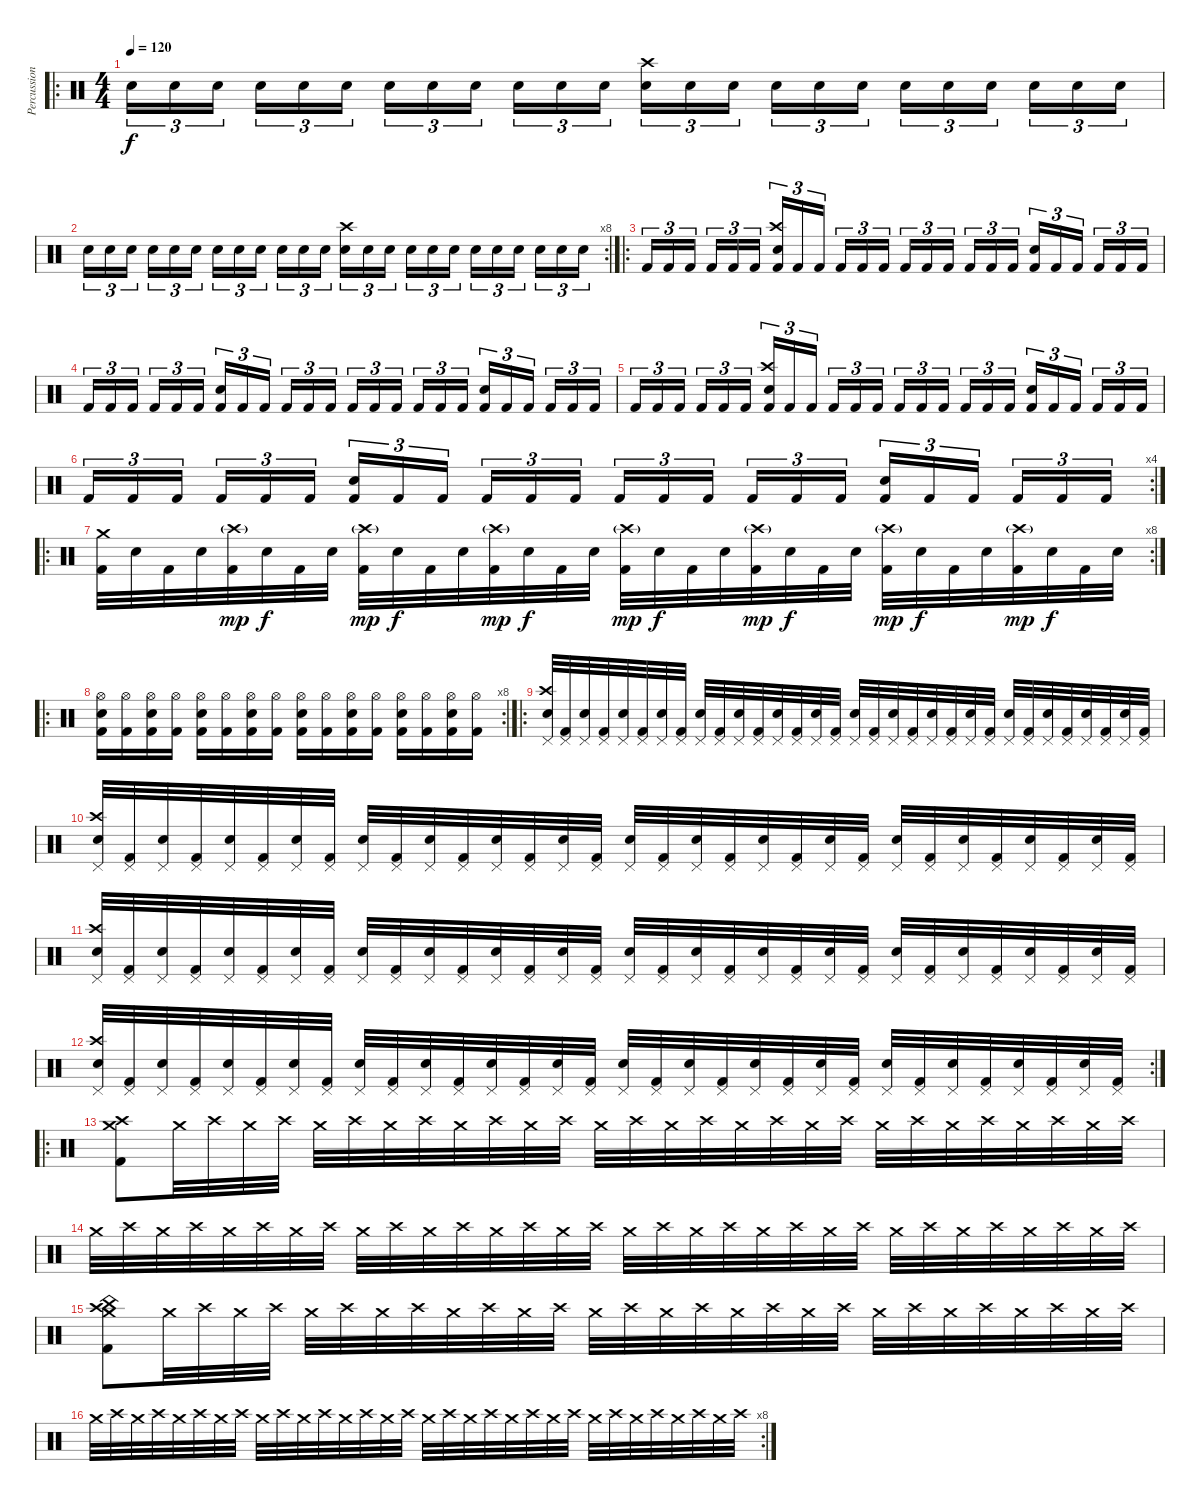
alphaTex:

\track ("Percussions" "Percussion") {instrument percussion}
\staff {score}
\articulation defaults
\ro
\ts (4 4)
\tempo 120
\clef neutral
\ks c "Electric Snare (hit)".16{tu (3 2) dy f} "Snare (hit) 2".16{tu (3 2)} "Electric Snare (hit)".16{tu (3 2) beam splitsecondary} "Snare (hit) 2".16{tu (3 2)} "Electric Snare (hit)".16{tu (3 2)} "Snare (hit) 2".16{tu (3 2)} "Electric Snare (hit)".16{tu (3 2)} "Snare (hit) 2".16{tu (3 2)} "Electric Snare (hit)".16{tu (3 2) beam splitsecondary} "Snare (hit) 2".16{tu (3 2)} "Electric Snare (hit)".16{tu (3 2)} "Snare (hit) 2".16{tu (3 2)}
("Crash high (hit)" "Electric Snare (hit)").16{tu (3 2)} "Snare (hit) 2".16{tu (3 2)} "Electric Snare (hit)".16{tu (3 2) beam splitsecondary} "Snare (hit) 2".16{tu (3 2)} "Electric Snare (hit)".16{tu (3 2)} "Snare (hit) 2".16{tu (3 2)} "Electric Snare (hit)".16{tu (3 2)} "Snare (hit) 2".16{tu (3 2)} "Electric Snare (hit)".16{tu (3 2) beam splitsecondary} "Snare (hit) 2".16{tu (3 2)} "Electric Snare (hit)".16{tu (3 2)} "Snare (hit) 2".16{tu (3 2)} |
\rc 8 "Electric Snare (hit)".16{tu (3 2)} "Snare (hit) 2".16{tu (3 2)} "Electric Snare (hit)".16{tu (3 2) beam splitsecondary} "Snare (hit) 2".16{tu (3 2)} "Electric Snare (hit)".16{tu (3 2)} "Snare (hit) 2".16{tu (3 2)} "Electric Snare (hit)".16{tu (3 2)} "Snare (hit) 2".16{tu (3 2)} "Electric Snare (hit)".16{tu (3 2) beam splitsecondary} "Snare (hit) 2".16{tu (3 2)} "Electric Snare (hit)".16{tu (3 2)} "Snare (hit) 2".16{tu (3 2)}
("Crash high (hit)" "Electric Snare (hit)").16{tu (3 2)} "Snare (hit) 2".16{tu (3 2)} "Electric Snare (hit)".16{tu (3 2) beam splitsecondary} "Snare (hit) 2".16{tu (3 2)} "Electric Snare (hit)".16{tu (3 2)} "Snare (hit) 2".16{tu (3 2)} "Electric Snare (hit)".16{tu (3 2)} "Snare (hit) 2".16{tu (3 2)} "Electric Snare (hit)".16{tu (3 2) beam splitsecondary} "Snare (hit) 2".16{tu (3 2)} "Electric Snare (hit)".16{tu (3 2)} "Snare (hit) 2".16{tu (3 2)} |
\ro "Kick (hit) 2".16{tu (3 2)} "Kick (hit) 2".16{tu (3 2)} "Kick (hit) 2".16{tu (3 2) beam splitsecondary} "Kick (hit) 2".16{tu (3 2)} "Kick (hit) 2".16{tu (3 2)} "Kick (hit) 2".16{tu (3 2)}
("Snare (hit) 2" "Crash high (hit)" "Kick (hit) 2").16{tu (3 2)} "Kick (hit) 2".16{tu (3 2)} "Kick (hit) 2".16{tu (3 2) beam splitsecondary} "Kick (hit) 2".16{tu (3 2)} "Kick (hit) 2".16{tu (3 2)} "Kick (hit) 2".16{tu (3 2)} "Kick (hit) 2".16{tu (3 2)} "Kick (hit) 2".16{tu (3 2)} "Kick (hit) 2".16{tu (3 2) beam splitsecondary} "Kick (hit) 2".16{tu (3 2)} "Kick (hit) 2".16{tu (3 2)} "Kick (hit) 2".16{tu (3 2)} ("Snare (hit) 2" "Kick (hit) 2").16{tu (3 2)} "Kick (hit) 2".16{tu (3 2)} "Kick (hit) 2".16{tu (3 2) beam splitsecondary} "Kick (hit) 2".16{tu (3 2)} "Kick (hit) 2".16{tu (3 2)} "Kick (hit) 2".16{tu (3 2)} |
"Kick (hit) 2".16{tu (3 2)} "Kick (hit) 2".16{tu (3 2)} "Kick (hit) 2".16{tu (3 2) beam splitsecondary} "Kick (hit) 2".16{tu (3 2)} "Kick (hit) 2".16{tu (3 2)} "Kick (hit) 2".16{tu (3 2)} ("Snare (hit) 2" "Kick (hit) 2").16{tu (3 2)} "Kick (hit) 2".16{tu (3 2)} "Kick (hit) 2".16{tu (3 2) beam splitsecondary} "Kick (hit) 2".16{tu (3 2)} "Kick (hit) 2".16{tu (3 2)} "Kick (hit) 2".16{tu (3 2)} "Kick (hit) 2".16{tu (3 2)} "Kick (hit) 2".16{tu (3 2)} "Kick (hit) 2".16{tu (3 2) beam splitsecondary} "Kick (hit) 2".16{tu (3 2)} "Kick (hit) 2".16{tu (3 2)} "Kick (hit) 2".16{tu (3 2)} ("Snare (hit) 2" "Kick (hit) 2").16{tu (3 2)} "Kick (hit) 2".16{tu (3 2)} "Kick (hit) 2".16{tu (3 2) beam splitsecondary} "Kick (hit) 2".16{tu (3 2)} "Kick (hit) 2".16{tu (3 2)} "Kick (hit) 2".16{tu (3 2)} |
"Kick (hit) 2".16{tu (3 2)} "Kick (hit) 2".16{tu (3 2)} "Kick (hit) 2".16{tu (3 2) beam splitsecondary} "Kick (hit) 2".16{tu (3 2)} "Kick (hit) 2".16{tu (3 2)} "Kick (hit) 2".16{tu (3 2)} ("Snare (hit) 2" "Crash high (hit)" "Kick (hit) 2").16{tu (3 2)} "Kick (hit) 2".16{tu (3 2)} "Kick (hit) 2".16{tu (3 2) beam splitsecondary} "Kick (hit) 2".16{tu (3 2)} "Kick (hit) 2".16{tu (3 2)} "Kick (hit) 2".16{tu (3 2)} "Kick (hit) 2".16{tu (3 2)} "Kick (hit) 2".16{tu (3 2)} "Kick (hit) 2".16{tu (3 2) beam splitsecondary} "Kick (hit) 2".16{tu (3 2)} "Kick (hit) 2".16{tu (3 2)} "Kick (hit) 2".16{tu (3 2)} ("Snare (hit) 2" "Kick (hit) 2").16{tu (3 2)} "Kick (hit) 2".16{tu (3 2)} "Kick (hit) 2".16{tu (3 2) beam splitsecondary} "Kick (hit) 2".16{tu (3 2)} "Kick (hit) 2".16{tu (3 2)} "Kick (hit) 2".16{tu (3 2)} |
\rc 4 "Kick (hit) 2".16{tu (3 2)} "Kick (hit) 2".16{tu (3 2)} "Kick (hit) 2".16{tu (3 2) beam splitsecondary} "Kick (hit) 2".16{tu (3 2)} "Kick (hit) 2".16{tu (3 2)} "Kick (hit) 2".16{tu (3 2)}
("Snare (hit) 2" "Kick (hit) 2").16{tu (3 2)} "Kick (hit) 2".16{tu (3 2)} "Kick (hit) 2".16{tu (3 2) beam splitsecondary} "Kick (hit) 2".16{tu (3 2)} "Kick (hit) 2".16{tu (3 2)} "Kick (hit) 2".16{tu (3 2)} "Kick (hit) 2".16{tu (3 2)} "Kick (hit) 2".16{tu (3 2)} "Kick (hit) 2".16{tu (3 2) beam splitsecondary} "Kick (hit) 2".16{tu (3 2)} "Kick (hit) 2".16{tu (3 2)} "Kick (hit) 2".16{tu (3 2)} ("Snare (hit) 2" "Kick (hit) 2").16{tu (3 2)} "Kick (hit) 2".16{tu (3 2)} "Kick (hit) 2".16{tu (3 2) beam splitsecondary} "Kick (hit) 2".16{tu (3 2)} "Kick (hit) 2".16{tu (3 2)} "Kick (hit) 2".16{tu (3 2)} |
\ro
\rc 8
("Crash medium (hit)" "Kick (hit) 2").32 "Electric Snare (hit)".32 "Kick (hit) 2".32 "Electric Snare (hit)".32 ("Crash high (hit)"{g} "Kick (hit) 2").32{dy mp} "Electric Snare (hit)".32{dy f} "Kick (hit) 2".32 "Electric Snare (hit)".32 ("Crash high (hit)"{g} "Kick (hit) 2").32{dy mp} "Electric Snare (hit)".32{dy f} "Kick (hit) 2".32 "Electric Snare (hit)".32 ("Crash high (hit)"{g} "Kick (hit) 2").32{dy mp} "Electric Snare (hit)".32{dy f} "Kick (hit) 2".32 "Electric Snare (hit)".32 ("Crash high (hit)"{g} "Kick (hit) 2").32{dy mp} "Electric Snare (hit)".32{dy f} "Kick (hit) 2".32 "Electric Snare (hit)".32 ("Crash high (hit)"{g} "Kick (hit) 2").32{dy mp} "Electric Snare (hit)".32{dy f} "Kick (hit) 2".32 "Electric Snare (hit)".32 ("Crash high (hit)"{g} "Kick (hit) 2").32{dy mp} "Electric Snare (hit)".32{dy f} "Kick (hit) 2".32 "Electric Snare (hit)".32 ("Crash high (hit)"{g} "Kick (hit) 2").32{dy mp} "Electric Snare (hit)".32{dy f} "Kick (hit) 2".32 "Electric Snare (hit)".32 |
\ro
\rc 8
("Hi-Hat (open)" "Snare (hit) 2" "Kick (hit) 2").16 ("Hi-Hat (open)" "Kick (hit) 2").16 ("Hi-Hat (open)" "Snare (hit) 2" "Kick (hit) 2").16 ("Hi-Hat (open)" "Kick (hit) 2").16 ("Hi-Hat (open)" "Snare (hit) 2" "Kick (hit) 2").16 ("Hi-Hat (open)" "Kick (hit) 2").16 ("Hi-Hat (open)" "Snare (hit) 2" "Kick (hit) 2").16 ("Hi-Hat (open)" "Kick (hit) 2").16 ("Hi-Hat (open)" "Snare (hit) 2" "Kick (hit) 2").16 ("Hi-Hat (open)" "Kick (hit) 2").16 ("Hi-Hat (open)" "Snare (hit) 2" "Kick (hit) 2").16 ("Hi-Hat (open)" "Kick (hit) 2").16 ("Hi-Hat (open)" "Snare (hit) 2" "Kick (hit) 2").16 ("Hi-Hat (open)" "Kick (hit) 2").16 ("Hi-Hat (open)" "Snare (hit) 2" "Kick (hit) 2").16 ("Hi-Hat (open)" "Kick (hit) 2").16 |
\ro
("Pedal Hi-Hat (hit)" "Crash high (hit)" "Electric Snare (hit)").32 ("Pedal Hi-Hat (hit)" "Kick (hit) 2").32 ("Pedal Hi-Hat (hit)" "Electric Snare (hit)").32 ("Pedal Hi-Hat (hit)" "Kick (hit) 2").32 ("Pedal Hi-Hat (hit)" "Electric Snare (hit)").32 ("Pedal Hi-Hat (hit)" "Kick (hit) 2").32 ("Pedal Hi-Hat (hit)" "Electric Snare (hit)").32 ("Pedal Hi-Hat (hit)" "Kick (hit) 2").32 ("Pedal Hi-Hat (hit)" "Electric Snare (hit)").32 ("Pedal Hi-Hat (hit)" "Kick (hit) 2").32 ("Pedal Hi-Hat (hit)" "Electric Snare (hit)").32 ("Pedal Hi-Hat (hit)" "Kick (hit) 2").32 ("Pedal Hi-Hat (hit)" "Electric Snare (hit)").32 ("Pedal Hi-Hat (hit)" "Kick (hit) 2").32 ("Pedal Hi-Hat (hit)" "Electric Snare (hit)").32 ("Pedal Hi-Hat (hit)" "Kick (hit) 2").32 ("Pedal Hi-Hat (hit)" "Electric Snare (hit)").32 ("Pedal Hi-Hat (hit)" "Kick (hit) 2").32 ("Pedal Hi-Hat (hit)" "Electric Snare (hit)").32 ("Pedal Hi-Hat (hit)" "Kick (hit) 2").32 ("Pedal Hi-Hat (hit)" "Electric Snare (hit)").32 ("Pedal Hi-Hat (hit)" "Kick (hit) 2").32 ("Pedal Hi-Hat (hit)" "Electric Snare (hit)").32 ("Pedal Hi-Hat (hit)" "Kick (hit) 2").32 ("Pedal Hi-Hat (hit)" "Electric Snare (hit)").32 ("Pedal Hi-Hat (hit)" "Kick (hit) 2").32 ("Pedal Hi-Hat (hit)" "Electric Snare (hit)").32 ("Pedal Hi-Hat (hit)" "Kick (hit) 2").32 ("Pedal Hi-Hat (hit)" "Electric Snare (hit)").32 ("Pedal Hi-Hat (hit)" "Kick (hit) 2").32 ("Pedal Hi-Hat (hit)" "Electric Snare (hit)").32 ("Pedal Hi-Hat (hit)" "Kick (hit) 2").32 |
("Pedal Hi-Hat (hit)" "Crash high (hit)" "Electric Snare (hit)").32 ("Pedal Hi-Hat (hit)" "Kick (hit) 2").32 ("Pedal Hi-Hat (hit)" "Electric Snare (hit)").32 ("Pedal Hi-Hat (hit)" "Kick (hit) 2").32 ("Pedal Hi-Hat (hit)" "Electric Snare (hit)").32 ("Pedal Hi-Hat (hit)" "Kick (hit) 2").32 ("Pedal Hi-Hat (hit)" "Electric Snare (hit)").32 ("Pedal Hi-Hat (hit)" "Kick (hit) 2").32 ("Pedal Hi-Hat (hit)" "Electric Snare (hit)").32 ("Pedal Hi-Hat (hit)" "Kick (hit) 2").32 ("Pedal Hi-Hat (hit)" "Electric Snare (hit)").32 ("Pedal Hi-Hat (hit)" "Kick (hit) 2").32 ("Pedal Hi-Hat (hit)" "Electric Snare (hit)").32 ("Pedal Hi-Hat (hit)" "Kick (hit) 2").32 ("Pedal Hi-Hat (hit)" "Electric Snare (hit)").32 ("Pedal Hi-Hat (hit)" "Kick (hit) 2").32 ("Pedal Hi-Hat (hit)" "Electric Snare (hit)").32 ("Pedal Hi-Hat (hit)" "Kick (hit) 2").32 ("Pedal Hi-Hat (hit)" "Electric Snare (hit)").32 ("Pedal Hi-Hat (hit)" "Kick (hit) 2").32 ("Pedal Hi-Hat (hit)" "Electric Snare (hit)").32 ("Pedal Hi-Hat (hit)" "Kick (hit) 2").32 ("Pedal Hi-Hat (hit)" "Electric Snare (hit)").32 ("Pedal Hi-Hat (hit)" "Kick (hit) 2").32 ("Pedal Hi-Hat (hit)" "Electric Snare (hit)").32 ("Pedal Hi-Hat (hit)" "Kick (hit) 2").32 ("Pedal Hi-Hat (hit)" "Electric Snare (hit)").32 ("Pedal Hi-Hat (hit)" "Kick (hit) 2").32 ("Pedal Hi-Hat (hit)" "Electric Snare (hit)").32 ("Pedal Hi-Hat (hit)" "Kick (hit) 2").32 ("Pedal Hi-Hat (hit)" "Electric Snare (hit)").32 ("Pedal Hi-Hat (hit)" "Kick (hit) 2").32 |
("Pedal Hi-Hat (hit)" "Crash high (hit)" "Electric Snare (hit)").32 ("Pedal Hi-Hat (hit)" "Kick (hit) 2").32 ("Pedal Hi-Hat (hit)" "Electric Snare (hit)").32 ("Pedal Hi-Hat (hit)" "Kick (hit) 2").32 ("Pedal Hi-Hat (hit)" "Electric Snare (hit)").32 ("Pedal Hi-Hat (hit)" "Kick (hit) 2").32 ("Pedal Hi-Hat (hit)" "Electric Snare (hit)").32 ("Pedal Hi-Hat (hit)" "Kick (hit) 2").32 ("Pedal Hi-Hat (hit)" "Electric Snare (hit)").32 ("Pedal Hi-Hat (hit)" "Kick (hit) 2").32 ("Pedal Hi-Hat (hit)" "Electric Snare (hit)").32 ("Pedal Hi-Hat (hit)" "Kick (hit) 2").32 ("Pedal Hi-Hat (hit)" "Electric Snare (hit)").32 ("Pedal Hi-Hat (hit)" "Kick (hit) 2").32 ("Pedal Hi-Hat (hit)" "Electric Snare (hit)").32 ("Pedal Hi-Hat (hit)" "Kick (hit) 2").32 ("Pedal Hi-Hat (hit)" "Electric Snare (hit)").32 ("Pedal Hi-Hat (hit)" "Kick (hit) 2").32 ("Pedal Hi-Hat (hit)" "Electric Snare (hit)").32 ("Pedal Hi-Hat (hit)" "Kick (hit) 2").32 ("Pedal Hi-Hat (hit)" "Electric Snare (hit)").32 ("Pedal Hi-Hat (hit)" "Kick (hit) 2").32 ("Pedal Hi-Hat (hit)" "Electric Snare (hit)").32 ("Pedal Hi-Hat (hit)" "Kick (hit) 2").32 ("Pedal Hi-Hat (hit)" "Electric Snare (hit)").32 ("Pedal Hi-Hat (hit)" "Kick (hit) 2").32 ("Pedal Hi-Hat (hit)" "Electric Snare (hit)").32 ("Pedal Hi-Hat (hit)" "Kick (hit) 2").32 ("Pedal Hi-Hat (hit)" "Electric Snare (hit)").32 ("Pedal Hi-Hat (hit)" "Kick (hit) 2").32 ("Pedal Hi-Hat (hit)" "Electric Snare (hit)").32 ("Pedal Hi-Hat (hit)" "Kick (hit) 2").32 |
\rc 2
("Pedal Hi-Hat (hit)" "Crash high (hit)" "Electric Snare (hit)").32 ("Pedal Hi-Hat (hit)" "Kick (hit) 2").32 ("Pedal Hi-Hat (hit)" "Electric Snare (hit)").32 ("Pedal Hi-Hat (hit)" "Kick (hit) 2").32 ("Pedal Hi-Hat (hit)" "Electric Snare (hit)").32 ("Pedal Hi-Hat (hit)" "Kick (hit) 2").32 ("Pedal Hi-Hat (hit)" "Electric Snare (hit)").32 ("Pedal Hi-Hat (hit)" "Kick (hit) 2").32 ("Pedal Hi-Hat (hit)" "Electric Snare (hit)").32 ("Pedal Hi-Hat (hit)" "Kick (hit) 2").32 ("Pedal Hi-Hat (hit)" "Electric Snare (hit)").32 ("Pedal Hi-Hat (hit)" "Kick (hit) 2").32 ("Pedal Hi-Hat (hit)" "Electric Snare (hit)").32 ("Pedal Hi-Hat (hit)" "Kick (hit) 2").32 ("Pedal Hi-Hat (hit)" "Electric Snare (hit)").32 ("Pedal Hi-Hat (hit)" "Kick (hit) 2").32 ("Pedal Hi-Hat (hit)" "Electric Snare (hit)").32 ("Pedal Hi-Hat (hit)" "Kick (hit) 2").32 ("Pedal Hi-Hat (hit)" "Electric Snare (hit)").32 ("Pedal Hi-Hat (hit)" "Kick (hit) 2").32 ("Pedal Hi-Hat (hit)" "Electric Snare (hit)").32 ("Pedal Hi-Hat (hit)" "Kick (hit) 2").32 ("Pedal Hi-Hat (hit)" "Electric Snare (hit)").32 ("Pedal Hi-Hat (hit)" "Kick (hit) 2").32 ("Pedal Hi-Hat (hit)" "Electric Snare (hit)").32 ("Pedal Hi-Hat (hit)" "Kick (hit) 2").32 ("Pedal Hi-Hat (hit)" "Electric Snare (hit)").32 ("Pedal Hi-Hat (hit)" "Kick (hit) 2").32 ("Pedal Hi-Hat (hit)" "Electric Snare (hit)").32 ("Pedal Hi-Hat (hit)" "Kick (hit) 2").32 ("Pedal Hi-Hat (hit)" "Electric Snare (hit)").32 ("Pedal Hi-Hat (hit)" "Kick (hit) 2").32 |
\ro
("Crash medium (hit)" "Crash high (hit)" "Kick (hit) 2").8 "Crash medium (hit)".32 "Crash high (hit)".32 "Crash medium (hit)".32 "Crash high (hit)".32 "Crash medium (hit)".32 "Crash high (hit)".32 "Crash medium (hit)".32 "Crash high (hit)".32 "Crash medium (hit)".32 "Crash high (hit)".32 "Crash medium (hit)".32 "Crash high (hit)".32 "Crash medium (hit)".32 "Crash high (hit)".32 "Crash medium (hit)".32 "Crash high (hit)".32 "Crash medium (hit)".32 "Crash high (hit)".32 "Crash medium (hit)".32 "Crash high (hit)".32 "Crash medium (hit)".32 "Crash high (hit)".32 "Crash medium (hit)".32 "Crash high (hit)".32 "Crash medium (hit)".32 "Crash high (hit)".32 "Crash medium (hit)".32 "Crash high (hit)".32 |
"Crash medium (hit)".32 "Crash high (hit)".32 "Crash medium (hit)".32 "Crash high (hit)".32 "Crash medium (hit)".32 "Crash high (hit)".32 "Crash medium (hit)".32 "Crash high (hit)".32 "Crash medium (hit)".32 "Crash high (hit)".32 "Crash medium (hit)".32 "Crash high (hit)".32 "Crash medium (hit)".32 "Crash high (hit)".32 "Crash medium (hit)".32 "Crash high (hit)".32 "Crash medium (hit)".32 "Crash high (hit)".32 "Crash medium (hit)".32 "Crash high (hit)".32 "Crash medium (hit)".32 "Crash high (hit)".32 "Crash medium (hit)".32 "Crash high (hit)".32 "Crash medium (hit)".32 "Crash high (hit)".32 "Crash medium (hit)".32 "Crash high (hit)".32 "Crash medium (hit)".32 "Crash high (hit)".32 "Crash medium (hit)".32 "Crash high (hit)".32 |
("Crash medium (hit)" "Crash high (hit)" "Kick (hit) 2" "China (hit)").8 "Crash medium (hit)".32 "Crash high (hit)".32 "Crash medium (hit)".32 "Crash high (hit)".32 "Crash medium (hit)".32 "Crash high (hit)".32 "Crash medium (hit)".32 "Crash high (hit)".32 "Crash medium (hit)".32 "Crash high (hit)".32 "Crash medium (hit)".32 "Crash high (hit)".32 "Crash medium (hit)".32 "Crash high (hit)".32 "Crash medium (hit)".32 "Crash high (hit)".32 "Crash medium (hit)".32 "Crash high (hit)".32 "Crash medium (hit)".32 "Crash high (hit)".32 "Crash medium (hit)".32 "Crash high (hit)".32 "Crash medium (hit)".32 "Crash high (hit)".32 "Crash medium (hit)".32 "Crash high (hit)".32 "Crash medium (hit)".32 "Crash high (hit)".32 |
\rc 8 "Crash medium (hit)".32 "Crash high (hit)".32 "Crash medium (hit)".32 "Crash high (hit)".32 "Crash medium (hit)".32 "Crash high (hit)".32 "Crash medium (hit)".32 "Crash high (hit)".32 "Crash medium (hit)".32 "Crash high (hit)".32 "Crash medium (hit)".32 "Crash high (hit)".32 "Crash medium (hit)".32 "Crash high (hit)".32 "Crash medium (hit)".32 "Crash high (hit)".32 "Crash medium (hit)".32 "Crash high (hit)".32 "Crash medium (hit)".32 "Crash high (hit)".32 "Crash medium (hit)".32 "Crash high (hit)".32 "Crash medium (hit)".32 "Crash high (hit)".32 "Crash medium (hit)".32 "Crash high (hit)".32 "Crash medium (hit)".32 "Crash high (hit)".32 "Crash medium (hit)".32 "Crash high (hit)".32 "Crash medium (hit)".32 "Crash high (hit)".32
